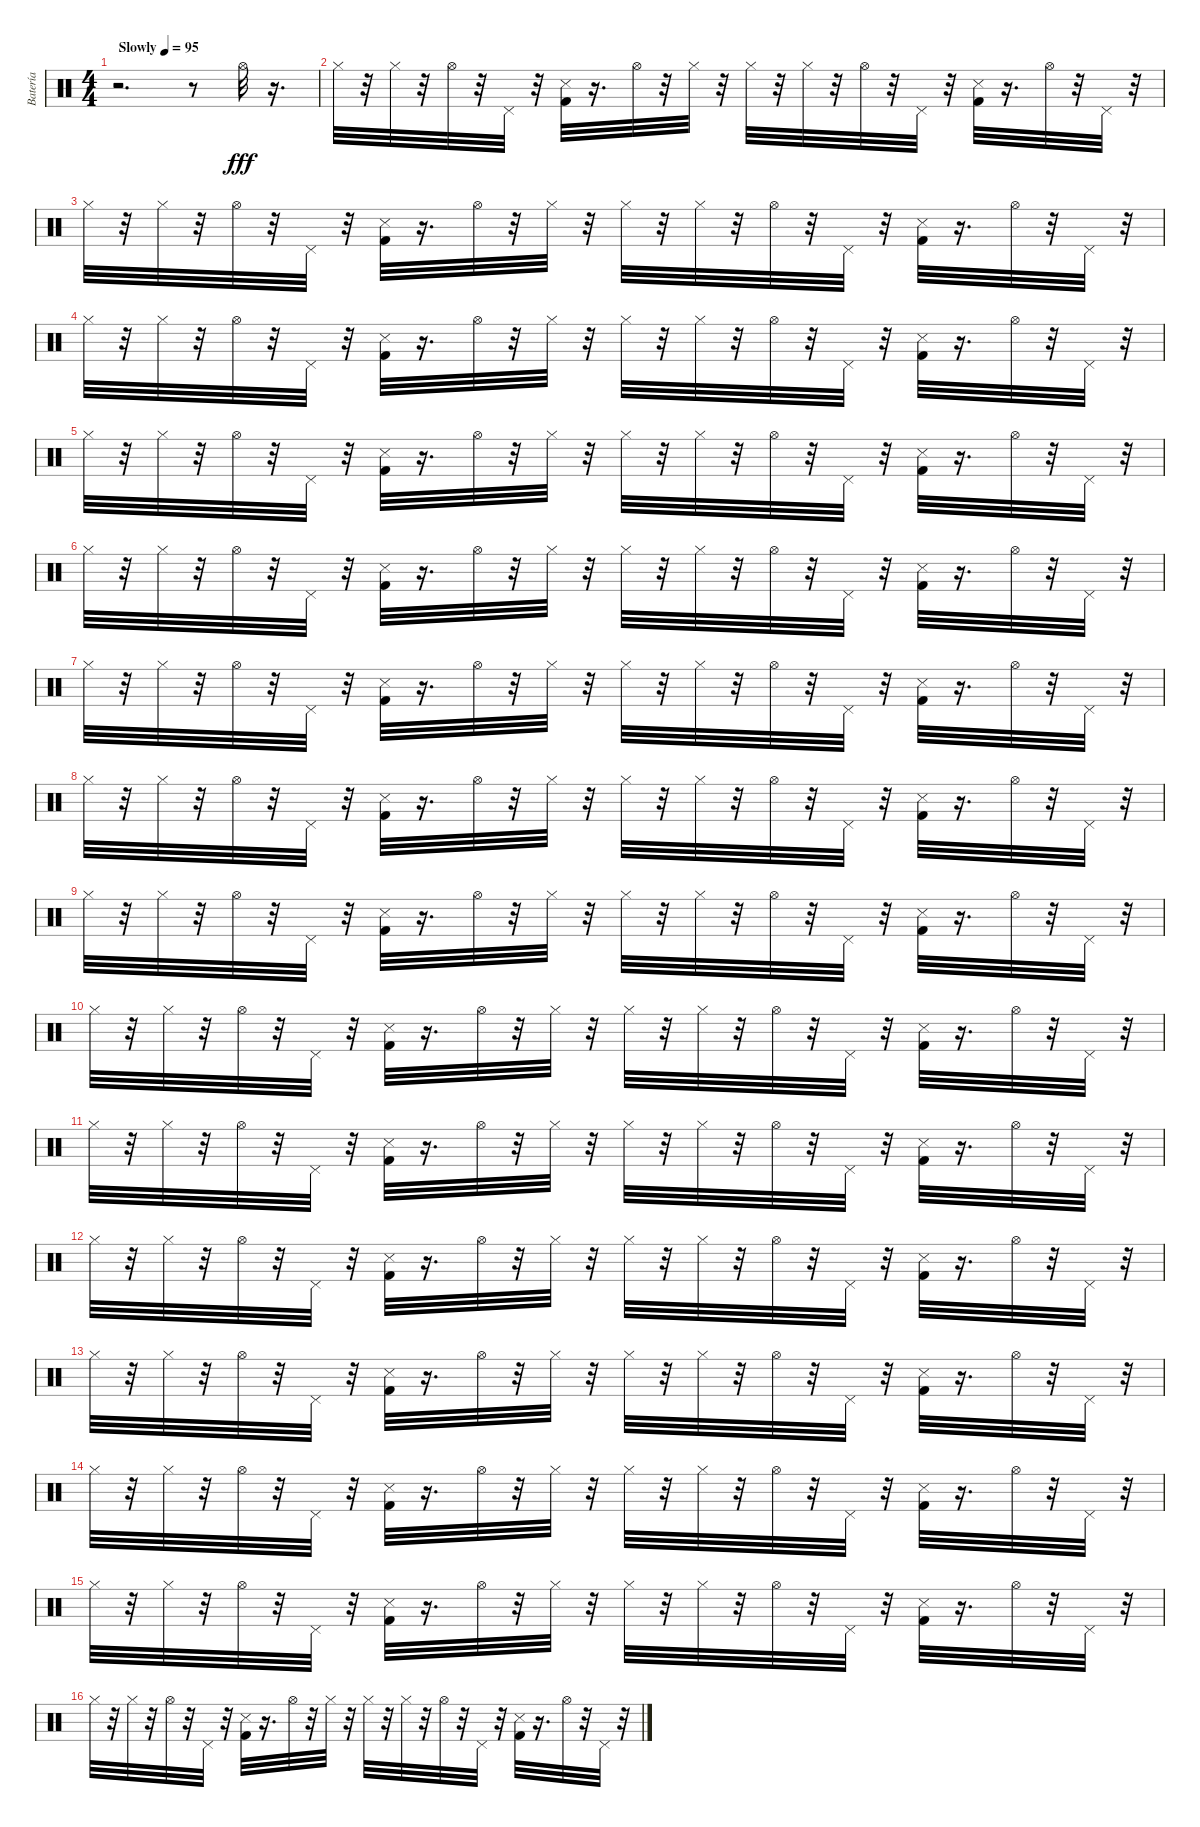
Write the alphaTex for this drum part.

\track ("Batería" "Batería") {instrument percussion}
\staff {score}
\articulation defaults
\ts (4 4)
\tempo (95 "Slowly")
\clef neutral
\ks c
r.2{d dy fff} r.8 "Hi-Hat (open)".32 r.16{d} |
"Hi-Hat (closed)".32 r.32 "Hi-Hat (closed)".32 r.32 "Hi-Hat (open)".32 r.32 "Pedal Hi-Hat (hit)".32 r.32 ("Kick (hit) 2" "Snare (side stick) 3").32 r.16{d} "Hi-Hat (open)".32 r.32 "Hi-Hat (closed)".32 r.32 "Hi-Hat (closed)".32 r.32 "Hi-Hat (closed)".32 r.32 "Hi-Hat (open)".32 r.32 "Pedal Hi-Hat (hit)".32 r.32 ("Kick (hit) 2" "Snare (side stick) 3").32 r.16{d} "Hi-Hat (open)".32 r.32 "Pedal Hi-Hat (hit)".32 r.32 |
"Hi-Hat (closed)".32 r.32 "Hi-Hat (closed)".32 r.32 "Hi-Hat (open)".32 r.32 "Pedal Hi-Hat (hit)".32 r.32 ("Kick (hit) 2" "Snare (side stick) 3").32 r.16{d} "Hi-Hat (open)".32 r.32 "Hi-Hat (closed)".32 r.32 "Hi-Hat (closed)".32 r.32 "Hi-Hat (closed)".32 r.32 "Hi-Hat (open)".32 r.32 "Pedal Hi-Hat (hit)".32 r.32 ("Kick (hit) 2" "Snare (side stick) 3").32 r.16{d} "Hi-Hat (open)".32 r.32 "Pedal Hi-Hat (hit)".32 r.32 |
"Hi-Hat (closed)".32 r.32 "Hi-Hat (closed)".32 r.32 "Hi-Hat (open)".32 r.32 "Pedal Hi-Hat (hit)".32 r.32 ("Kick (hit) 2" "Snare (side stick) 3").32 r.16{d} "Hi-Hat (open)".32 r.32 "Hi-Hat (closed)".32 r.32 "Hi-Hat (closed)".32 r.32 "Hi-Hat (closed)".32 r.32 "Hi-Hat (open)".32 r.32 "Pedal Hi-Hat (hit)".32 r.32 ("Kick (hit) 2" "Snare (side stick) 3").32 r.16{d} "Hi-Hat (open)".32 r.32 "Pedal Hi-Hat (hit)".32 r.32 |
"Hi-Hat (closed)".32 r.32 "Hi-Hat (closed)".32 r.32 "Hi-Hat (open)".32 r.32 "Pedal Hi-Hat (hit)".32 r.32 ("Kick (hit) 2" "Snare (side stick) 3").32 r.16{d} "Hi-Hat (open)".32 r.32 "Hi-Hat (closed)".32 r.32 "Hi-Hat (closed)".32 r.32 "Hi-Hat (closed)".32 r.32 "Hi-Hat (open)".32 r.32 "Pedal Hi-Hat (hit)".32 r.32 ("Kick (hit) 2" "Snare (side stick) 3").32 r.16{d} "Hi-Hat (open)".32 r.32 "Pedal Hi-Hat (hit)".32 r.32 |
"Hi-Hat (closed)".32 r.32 "Hi-Hat (closed)".32 r.32 "Hi-Hat (open)".32 r.32 "Pedal Hi-Hat (hit)".32 r.32 ("Kick (hit) 2" "Snare (side stick) 3").32 r.16{d} "Hi-Hat (open)".32 r.32 "Hi-Hat (closed)".32 r.32 "Hi-Hat (closed)".32 r.32 "Hi-Hat (closed)".32 r.32 "Hi-Hat (open)".32 r.32 "Pedal Hi-Hat (hit)".32 r.32 ("Kick (hit) 2" "Snare (side stick) 3").32 r.16{d} "Hi-Hat (open)".32 r.32 "Pedal Hi-Hat (hit)".32 r.32 |
"Hi-Hat (closed)".32 r.32 "Hi-Hat (closed)".32 r.32 "Hi-Hat (open)".32 r.32 "Pedal Hi-Hat (hit)".32 r.32 ("Kick (hit) 2" "Snare (side stick) 3").32 r.16{d} "Hi-Hat (open)".32 r.32 "Hi-Hat (closed)".32 r.32 "Hi-Hat (closed)".32 r.32 "Hi-Hat (closed)".32 r.32 "Hi-Hat (open)".32 r.32 "Pedal Hi-Hat (hit)".32 r.32 ("Kick (hit) 2" "Snare (side stick) 3").32 r.16{d} "Hi-Hat (open)".32 r.32 "Pedal Hi-Hat (hit)".32 r.32 |
"Hi-Hat (closed)".32 r.32 "Hi-Hat (closed)".32 r.32 "Hi-Hat (open)".32 r.32 "Pedal Hi-Hat (hit)".32 r.32 ("Kick (hit) 2" "Snare (side stick) 3").32 r.16{d} "Hi-Hat (open)".32 r.32 "Hi-Hat (closed)".32 r.32 "Hi-Hat (closed)".32 r.32 "Hi-Hat (closed)".32 r.32 "Hi-Hat (open)".32 r.32 "Pedal Hi-Hat (hit)".32 r.32 ("Kick (hit) 2" "Snare (side stick) 3").32 r.16{d} "Hi-Hat (open)".32 r.32 "Pedal Hi-Hat (hit)".32 r.32 |
"Hi-Hat (closed)".32 r.32 "Hi-Hat (closed)".32 r.32 "Hi-Hat (open)".32 r.32 "Pedal Hi-Hat (hit)".32 r.32 ("Kick (hit) 2" "Snare (side stick) 3").32 r.16{d} "Hi-Hat (open)".32 r.32 "Hi-Hat (closed)".32 r.32 "Hi-Hat (closed)".32 r.32 "Hi-Hat (closed)".32 r.32 "Hi-Hat (open)".32 r.32 "Pedal Hi-Hat (hit)".32 r.32 ("Kick (hit) 2" "Snare (side stick) 3").32 r.16{d} "Hi-Hat (open)".32 r.32 "Pedal Hi-Hat (hit)".32 r.32 |
"Hi-Hat (closed)".32 r.32 "Hi-Hat (closed)".32 r.32 "Hi-Hat (open)".32 r.32 "Pedal Hi-Hat (hit)".32 r.32 ("Kick (hit) 2" "Snare (side stick) 3").32 r.16{d} "Hi-Hat (open)".32 r.32 "Hi-Hat (closed)".32 r.32 "Hi-Hat (closed)".32 r.32 "Hi-Hat (closed)".32 r.32 "Hi-Hat (open)".32 r.32 "Pedal Hi-Hat (hit)".32 r.32 ("Kick (hit) 2" "Snare (side stick) 3").32 r.16{d} "Hi-Hat (open)".32 r.32 "Pedal Hi-Hat (hit)".32 r.32 |
"Hi-Hat (closed)".32 r.32 "Hi-Hat (closed)".32 r.32 "Hi-Hat (open)".32 r.32 "Pedal Hi-Hat (hit)".32 r.32 ("Kick (hit) 2" "Snare (side stick) 3").32 r.16{d} "Hi-Hat (open)".32 r.32 "Hi-Hat (closed)".32 r.32 "Hi-Hat (closed)".32 r.32 "Hi-Hat (closed)".32 r.32 "Hi-Hat (open)".32 r.32 "Pedal Hi-Hat (hit)".32 r.32 ("Kick (hit) 2" "Snare (side stick) 3").32 r.16{d} "Hi-Hat (open)".32 r.32 "Pedal Hi-Hat (hit)".32 r.32 |
"Hi-Hat (closed)".32 r.32 "Hi-Hat (closed)".32 r.32 "Hi-Hat (open)".32 r.32 "Pedal Hi-Hat (hit)".32 r.32 ("Kick (hit) 2" "Snare (side stick) 3").32 r.16{d} "Hi-Hat (open)".32 r.32 "Hi-Hat (closed)".32 r.32 "Hi-Hat (closed)".32 r.32 "Hi-Hat (closed)".32 r.32 "Hi-Hat (open)".32 r.32 "Pedal Hi-Hat (hit)".32 r.32 ("Kick (hit) 2" "Snare (side stick) 3").32 r.16{d} "Hi-Hat (open)".32 r.32 "Pedal Hi-Hat (hit)".32 r.32 |
"Hi-Hat (closed)".32 r.32 "Hi-Hat (closed)".32 r.32 "Hi-Hat (open)".32 r.32 "Pedal Hi-Hat (hit)".32 r.32 ("Kick (hit) 2" "Snare (side stick) 3").32 r.16{d} "Hi-Hat (open)".32 r.32 "Hi-Hat (closed)".32 r.32 "Hi-Hat (closed)".32 r.32 "Hi-Hat (closed)".32 r.32 "Hi-Hat (open)".32 r.32 "Pedal Hi-Hat (hit)".32 r.32 ("Kick (hit) 2" "Snare (side stick) 3").32 r.16{d} "Hi-Hat (open)".32 r.32 "Pedal Hi-Hat (hit)".32 r.32 |
"Hi-Hat (closed)".32 r.32 "Hi-Hat (closed)".32 r.32 "Hi-Hat (open)".32 r.32 "Pedal Hi-Hat (hit)".32 r.32 ("Kick (hit) 2" "Snare (side stick) 3").32 r.16{d} "Hi-Hat (open)".32 r.32 "Hi-Hat (closed)".32 r.32 "Hi-Hat (closed)".32 r.32 "Hi-Hat (closed)".32 r.32 "Hi-Hat (open)".32 r.32 "Pedal Hi-Hat (hit)".32 r.32 ("Kick (hit) 2" "Snare (side stick) 3").32 r.16{d} "Hi-Hat (open)".32 r.32 "Pedal Hi-Hat (hit)".32 r.32 |
"Hi-Hat (closed)".32 r.32 "Hi-Hat (closed)".32 r.32 "Hi-Hat (open)".32 r.32 "Pedal Hi-Hat (hit)".32 r.32 ("Kick (hit) 2" "Snare (side stick) 3").32 r.16{d} "Hi-Hat (open)".32 r.32 "Hi-Hat (closed)".32 r.32 "Hi-Hat (closed)".32 r.32 "Hi-Hat (closed)".32 r.32 "Hi-Hat (open)".32 r.32 "Pedal Hi-Hat (hit)".32 r.32 ("Kick (hit) 2" "Snare (side stick) 3").32 r.16{d} "Hi-Hat (open)".32 r.32 "Pedal Hi-Hat (hit)".32 r.32 |
"Hi-Hat (closed)".32 r.32 "Hi-Hat (closed)".32 r.32 "Hi-Hat (open)".32 r.32 "Pedal Hi-Hat (hit)".32 r.32 ("Kick (hit) 2" "Snare (side stick) 3").32 r.16{d} "Hi-Hat (open)".32 r.32 "Hi-Hat (closed)".32 r.32 "Hi-Hat (closed)".32 r.32 "Hi-Hat (closed)".32 r.32 "Hi-Hat (open)".32 r.32 "Pedal Hi-Hat (hit)".32 r.32 ("Kick (hit) 2" "Snare (side stick) 3").32 r.16{d} "Hi-Hat (open)".32 r.32 "Pedal Hi-Hat (hit)".32 r.32
